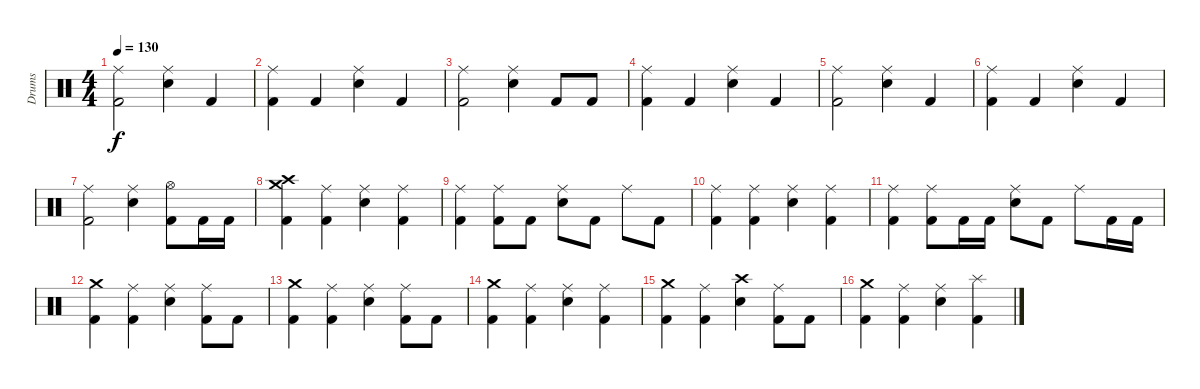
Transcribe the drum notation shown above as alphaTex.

\track ("Drums" "Drums") {instrument percussion}
\staff {score}
\articulation defaults
\ts (4 4)
\tempo 130
\clef neutral
\ks c
("Ride (middle)" "Kick (hit) 2").2{dy f} ("Ride (middle)" "Electric Snare (hit)").4 "Kick (hit) 2".4 |
("Ride (middle)" "Kick (hit) 2").4 "Kick (hit) 2".4 ("Ride (middle)" "Electric Snare (hit)").4 "Kick (hit) 2".4 |
("Ride (middle)" "Kick (hit) 2").2 ("Ride (middle)" "Electric Snare (hit)").4 "Kick (hit) 2".8 "Kick (hit) 2".8 |
("Ride (middle)" "Kick (hit) 2").4 "Kick (hit) 2".4 ("Ride (middle)" "Electric Snare (hit)").4 "Kick (hit) 2".4 |
("Ride (middle)" "Kick (hit) 2").2 ("Ride (middle)" "Electric Snare (hit)").4 "Kick (hit) 2".4 |
("Ride (middle)" "Kick (hit) 2").4 "Kick (hit) 2".4 ("Ride (middle)" "Electric Snare (hit)").4 "Kick (hit) 2".4 |
("Ride (middle)" "Kick (hit) 2").2 ("Ride (middle)" "Electric Snare (hit)").4 ("Hi-Hat (open)" "Kick (hit) 2").8 "Kick (hit) 2".16 "Kick (hit) 2".16 |
("Crash medium (hit)" "Crash high (hit)" "Kick (hit) 2").4{volume 15} ("Ride (middle)" "Kick (hit) 2").4 ("Ride (middle)" "Electric Snare (hit)").4 ("Ride (middle)" "Kick (hit) 2").4 |
("Ride (middle)" "Kick (hit) 2").4 ("Ride (middle)" "Kick (hit) 2").8 "Kick (hit) 2".8 ("Ride (middle)" "Electric Snare (hit)").8 "Kick (hit) 2".8 "Ride (middle)".8 "Kick (hit) 2".8 |
("Ride (middle)" "Kick (hit) 2").4 ("Ride (middle)" "Kick (hit) 2").4 ("Ride (middle)" "Electric Snare (hit)").4 ("Ride (middle)" "Kick (hit) 2").4 |
("Ride (middle)" "Kick (hit) 2").4 ("Ride (middle)" "Kick (hit) 2").8 "Kick (hit) 2".16 "Kick (hit) 2".16 ("Ride (middle)" "Electric Snare (hit)").8 "Kick (hit) 2".8 "Ride (middle)".8 "Kick (hit) 2".16 "Kick (hit) 2".16 |
("Crash medium (hit)" "Kick (hit) 2").4 ("Ride (middle)" "Kick (hit) 2").4 ("Ride (middle)" "Electric Snare (hit)").4 ("Ride (middle)" "Kick (hit) 2").8 "Kick (hit) 2".8 |
("Crash medium (hit)" "Kick (hit) 2").4 ("Ride (middle)" "Kick (hit) 2").4 ("Ride (middle)" "Electric Snare (hit)").4 ("Ride (middle)" "Kick (hit) 2").8 "Kick (hit) 2".8 |
("Crash medium (hit)" "Kick (hit) 2").4 ("Ride (middle)" "Kick (hit) 2").4 ("Ride (middle)" "Electric Snare (hit)").4 ("Ride (middle)" "Kick (hit) 2").4 |
("Crash medium (hit)" "Kick (hit) 2").4 ("Ride (middle)" "Kick (hit) 2").4 ("Crash high (hit)" "Electric Snare (hit)").4 ("Ride (middle)" "Kick (hit) 2").8 "Kick (hit) 2".8 |
("Crash medium (hit)" "Kick (hit) 2").4 ("Ride (middle)" "Kick (hit) 2").4 ("Ride (middle)" "Electric Snare (hit)").4 ("Splash (hit)" "Kick (hit) 2").4
